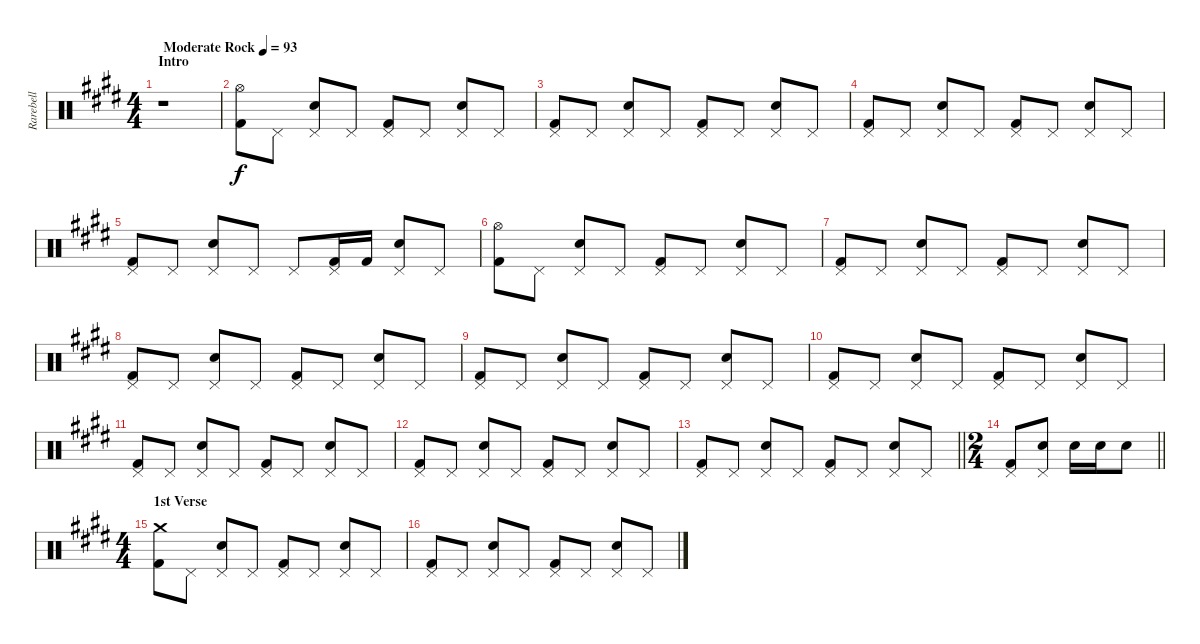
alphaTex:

\track ("Rarebell" "Rarebell") {instrument percussion}
\staff {score}
\articulation defaults
\ts (4 4)
\section ("" "Intro")
\tempo (93 "Moderate Rock")
\clef neutral
\ks e
r.1{dy f} |
("Hi-Hat (open)" "Kick (hit) 2").8 "Pedal Hi-Hat (hit)".8 ("Pedal Hi-Hat (hit)" "Snare (hit) 2").8 "Pedal Hi-Hat (hit)".8 ("Pedal Hi-Hat (hit)" "Kick (hit) 2").8 "Pedal Hi-Hat (hit)".8 ("Pedal Hi-Hat (hit)" "Snare (hit) 2").8 "Pedal Hi-Hat (hit)".8 |
("Pedal Hi-Hat (hit)" "Kick (hit) 2").8 "Pedal Hi-Hat (hit)".8 ("Pedal Hi-Hat (hit)" "Snare (hit) 2").8 "Pedal Hi-Hat (hit)".8 ("Pedal Hi-Hat (hit)" "Kick (hit) 2").8 "Pedal Hi-Hat (hit)".8 ("Pedal Hi-Hat (hit)" "Snare (hit) 2").8 "Pedal Hi-Hat (hit)".8 |
("Pedal Hi-Hat (hit)" "Kick (hit) 2").8 "Pedal Hi-Hat (hit)".8 ("Pedal Hi-Hat (hit)" "Snare (hit) 2").8 "Pedal Hi-Hat (hit)".8 ("Pedal Hi-Hat (hit)" "Kick (hit) 2").8 "Pedal Hi-Hat (hit)".8 ("Pedal Hi-Hat (hit)" "Snare (hit) 2").8 "Pedal Hi-Hat (hit)".8 |
("Pedal Hi-Hat (hit)" "Kick (hit) 2").8 "Pedal Hi-Hat (hit)".8 ("Pedal Hi-Hat (hit)" "Snare (hit) 2").8 "Pedal Hi-Hat (hit)".8 "Pedal Hi-Hat (hit)".8 ("Pedal Hi-Hat (hit)" "Kick (hit) 2").16 "Kick (hit) 2".16 ("Pedal Hi-Hat (hit)" "Snare (hit) 2").8 "Pedal Hi-Hat (hit)".8 |
("Hi-Hat (open)" "Kick (hit) 2").8 "Pedal Hi-Hat (hit)".8 ("Pedal Hi-Hat (hit)" "Snare (hit) 2").8 "Pedal Hi-Hat (hit)".8 ("Pedal Hi-Hat (hit)" "Kick (hit) 2").8 "Pedal Hi-Hat (hit)".8 ("Pedal Hi-Hat (hit)" "Snare (hit) 2").8 "Pedal Hi-Hat (hit)".8 |
("Pedal Hi-Hat (hit)" "Kick (hit) 2").8 "Pedal Hi-Hat (hit)".8 ("Pedal Hi-Hat (hit)" "Snare (hit) 2").8 "Pedal Hi-Hat (hit)".8 ("Pedal Hi-Hat (hit)" "Kick (hit) 2").8 "Pedal Hi-Hat (hit)".8 ("Pedal Hi-Hat (hit)" "Snare (hit) 2").8 "Pedal Hi-Hat (hit)".8 |
("Pedal Hi-Hat (hit)" "Kick (hit) 2").8 "Pedal Hi-Hat (hit)".8 ("Pedal Hi-Hat (hit)" "Snare (hit) 2").8 "Pedal Hi-Hat (hit)".8 ("Pedal Hi-Hat (hit)" "Kick (hit) 2").8 "Pedal Hi-Hat (hit)".8 ("Pedal Hi-Hat (hit)" "Snare (hit) 2").8 "Pedal Hi-Hat (hit)".8 |
("Pedal Hi-Hat (hit)" "Kick (hit) 2").8 "Pedal Hi-Hat (hit)".8 ("Pedal Hi-Hat (hit)" "Snare (hit) 2").8 "Pedal Hi-Hat (hit)".8 ("Pedal Hi-Hat (hit)" "Kick (hit) 2").8 "Pedal Hi-Hat (hit)".8 ("Pedal Hi-Hat (hit)" "Snare (hit) 2").8 "Pedal Hi-Hat (hit)".8 |
("Pedal Hi-Hat (hit)" "Kick (hit) 2").8 "Pedal Hi-Hat (hit)".8 ("Pedal Hi-Hat (hit)" "Snare (hit) 2").8 "Pedal Hi-Hat (hit)".8 ("Pedal Hi-Hat (hit)" "Kick (hit) 2").8 "Pedal Hi-Hat (hit)".8 ("Pedal Hi-Hat (hit)" "Snare (hit) 2").8 "Pedal Hi-Hat (hit)".8 |
("Pedal Hi-Hat (hit)" "Kick (hit) 2").8 "Pedal Hi-Hat (hit)".8 ("Pedal Hi-Hat (hit)" "Snare (hit) 2").8 "Pedal Hi-Hat (hit)".8 ("Pedal Hi-Hat (hit)" "Kick (hit) 2").8 "Pedal Hi-Hat (hit)".8 ("Pedal Hi-Hat (hit)" "Snare (hit) 2").8 "Pedal Hi-Hat (hit)".8 |
("Pedal Hi-Hat (hit)" "Kick (hit) 2").8 "Pedal Hi-Hat (hit)".8 ("Pedal Hi-Hat (hit)" "Snare (hit) 2").8 "Pedal Hi-Hat (hit)".8 ("Pedal Hi-Hat (hit)" "Kick (hit) 2").8 "Pedal Hi-Hat (hit)".8 ("Pedal Hi-Hat (hit)" "Snare (hit) 2").8 "Pedal Hi-Hat (hit)".8 |
\barLineRight lightlight
("Pedal Hi-Hat (hit)" "Kick (hit) 2").8 "Pedal Hi-Hat (hit)".8 ("Pedal Hi-Hat (hit)" "Snare (hit) 2").8 "Pedal Hi-Hat (hit)".8 ("Pedal Hi-Hat (hit)" "Kick (hit) 2").8 "Pedal Hi-Hat (hit)".8 ("Pedal Hi-Hat (hit)" "Snare (hit) 2").8 "Pedal Hi-Hat (hit)".8 |
\ts (2 4)
\barLineRight lightlight
("Pedal Hi-Hat (hit)" "Kick (hit) 2").8 ("Pedal Hi-Hat (hit)" "Snare (hit) 2").8 "Snare (hit) 2".16 "Snare (hit) 2".16 "Snare (hit) 2".8 |
\ts (4 4)
\section ("" "1st Verse")
("Crash medium (hit)" "Kick (hit) 2").8 "Pedal Hi-Hat (hit)".8 ("Pedal Hi-Hat (hit)" "Snare (hit) 2").8 "Pedal Hi-Hat (hit)".8 ("Pedal Hi-Hat (hit)" "Kick (hit) 2").8 "Pedal Hi-Hat (hit)".8 ("Pedal Hi-Hat (hit)" "Snare (hit) 2").8 "Pedal Hi-Hat (hit)".8 |
("Pedal Hi-Hat (hit)" "Kick (hit) 2").8 "Pedal Hi-Hat (hit)".8 ("Pedal Hi-Hat (hit)" "Snare (hit) 2").8 "Pedal Hi-Hat (hit)".8 ("Pedal Hi-Hat (hit)" "Kick (hit) 2").8 "Pedal Hi-Hat (hit)".8 ("Pedal Hi-Hat (hit)" "Snare (hit) 2").8 "Pedal Hi-Hat (hit)".8
